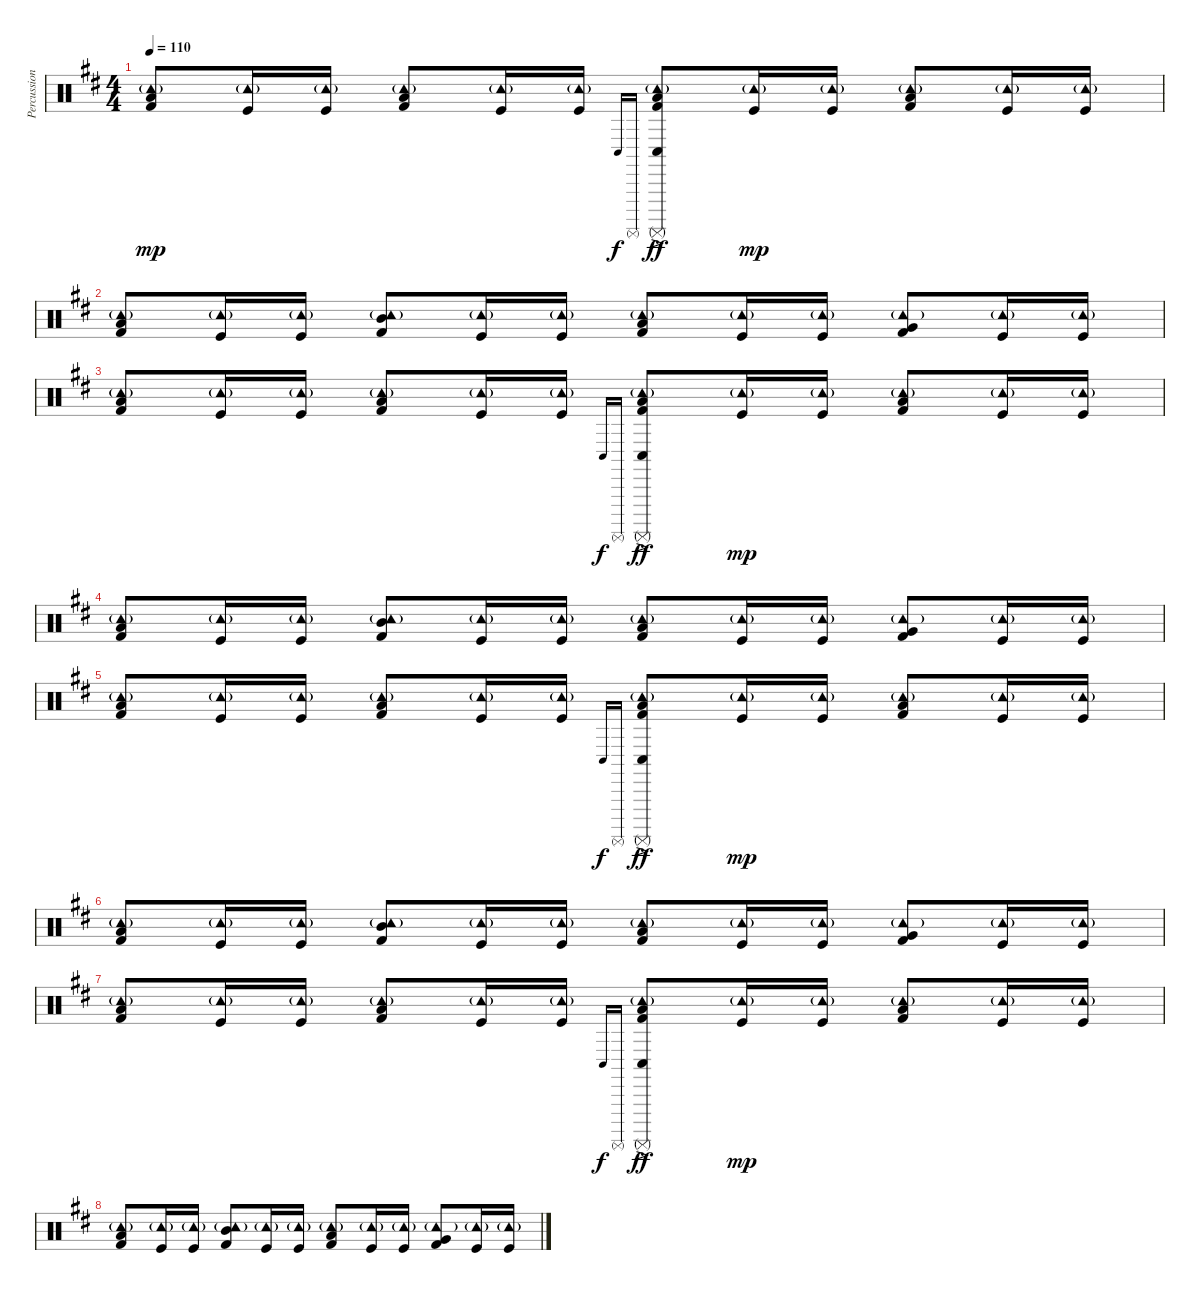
\track ("Percussion" "Percussion") {instrument percussion}
\staff {score}
\articulation defaults
\ts (4 4)
\tempo 110
\clef neutral
\ks d
("Tambourine (hit)"{g} "Low Floor Tom (hit)" "Kick (hit) 2").8{dy mp} ("Tambourine (hit)"{g} "Kick (hit)").16 ("Tambourine (hit)"{g} "Kick (hit)").16 ("Tambourine (hit)"{g} "Low Tom (hit)" "Kick (hit) 2").8 ("Tambourine (hit)"{g} "Kick (hit)").16 ("Tambourine (hit)"{g} "Kick (hit)").16 "Conga low (hit)".16{gr onbeat dy f} "Surdo (mute)".16{gr onbeat} ("Tambourine (hit)"{g} "Conga low (hit)"{ac} "Surdo (mute)"{ac} "Low Floor Tom (hit)"{ac} "Kick (hit) 2").8{dy ff} ("Tambourine (hit)"{g} "Kick (hit)").16{dy mp} ("Tambourine (hit)"{g} "Kick (hit)").16 ("Tambourine (hit)"{g} "Low Floor Tom (hit)" "Kick (hit) 2").8 ("Tambourine (hit)"{g} "Kick (hit)").16 ("Tambourine (hit)"{g} "Kick (hit)").16 |
("Tambourine (hit)"{g} "Low Floor Tom (hit)" "Kick (hit) 2").8 ("Tambourine (hit)"{g} "Kick (hit)").16 ("Tambourine (hit)"{g} "Kick (hit)").16 ("Tambourine (hit)"{g} "Mid Tom (hit)" "Kick (hit) 2").8 ("Tambourine (hit)"{g} "Kick (hit)").16 ("Tambourine (hit)"{g} "Kick (hit)").16 ("Tambourine (hit)"{g} "Low Tom (hit)" "Kick (hit) 2").8 ("Tambourine (hit)"{g} "Kick (hit)").16 ("Tambourine (hit)"{g} "Kick (hit)").16 ("Tambourine (hit)"{g} "Very Low Tom (hit)" "Kick (hit) 2").8 ("Tambourine (hit)"{g} "Kick (hit)").16 ("Tambourine (hit)"{g} "Kick (hit)").16 |
("Tambourine (hit)"{g} "Low Floor Tom (hit)" "Kick (hit) 2").8 ("Tambourine (hit)"{g} "Kick (hit)").16 ("Tambourine (hit)"{g} "Kick (hit)").16 ("Tambourine (hit)"{g} "Low Tom (hit)" "Kick (hit) 2").8 ("Tambourine (hit)"{g} "Kick (hit)").16 ("Tambourine (hit)"{g} "Kick (hit)").16 "Conga low (hit)".16{gr onbeat dy f} "Surdo (mute)".16{gr onbeat} ("Tambourine (hit)"{g} "Conga low (hit)"{ac} "Surdo (mute)"{ac} "Low Floor Tom (hit)"{ac} "Kick (hit) 2").8{dy ff} ("Tambourine (hit)"{g} "Kick (hit)").16{dy mp} ("Tambourine (hit)"{g} "Kick (hit)").16 ("Tambourine (hit)"{g} "Low Floor Tom (hit)" "Kick (hit) 2").8 ("Tambourine (hit)"{g} "Kick (hit)").16 ("Tambourine (hit)"{g} "Kick (hit)").16 |
("Tambourine (hit)"{g} "Low Floor Tom (hit)" "Kick (hit) 2").8 ("Tambourine (hit)"{g} "Kick (hit)").16 ("Tambourine (hit)"{g} "Kick (hit)").16 ("Tambourine (hit)"{g} "Mid Tom (hit)" "Kick (hit) 2").8 ("Tambourine (hit)"{g} "Kick (hit)").16 ("Tambourine (hit)"{g} "Kick (hit)").16 ("Tambourine (hit)"{g} "Low Tom (hit)" "Kick (hit) 2").8 ("Tambourine (hit)"{g} "Kick (hit)").16 ("Tambourine (hit)"{g} "Kick (hit)").16 ("Tambourine (hit)"{g} "Very Low Tom (hit)" "Kick (hit) 2").8 ("Tambourine (hit)"{g} "Kick (hit)").16 ("Tambourine (hit)"{g} "Kick (hit)").16 |
("Tambourine (hit)"{g} "Low Floor Tom (hit)" "Kick (hit) 2").8 ("Tambourine (hit)"{g} "Kick (hit)").16 ("Tambourine (hit)"{g} "Kick (hit)").16 ("Tambourine (hit)"{g} "Low Tom (hit)" "Kick (hit) 2").8 ("Tambourine (hit)"{g} "Kick (hit)").16 ("Tambourine (hit)"{g} "Kick (hit)").16 "Conga low (hit)".16{gr onbeat dy f} "Surdo (mute)".16{gr onbeat} ("Tambourine (hit)"{g} "Conga low (hit)"{ac} "Surdo (mute)"{ac} "Low Floor Tom (hit)"{ac} "Kick (hit) 2").8{dy ff} ("Tambourine (hit)"{g} "Kick (hit)").16{dy mp} ("Tambourine (hit)"{g} "Kick (hit)").16 ("Tambourine (hit)"{g} "Low Floor Tom (hit)" "Kick (hit) 2").8 ("Tambourine (hit)"{g} "Kick (hit)").16 ("Tambourine (hit)"{g} "Kick (hit)").16 |
("Tambourine (hit)"{g} "Low Floor Tom (hit)" "Kick (hit) 2").8 ("Tambourine (hit)"{g} "Kick (hit)").16 ("Tambourine (hit)"{g} "Kick (hit)").16 ("Tambourine (hit)"{g} "Mid Tom (hit)" "Kick (hit) 2").8 ("Tambourine (hit)"{g} "Kick (hit)").16 ("Tambourine (hit)"{g} "Kick (hit)").16 ("Tambourine (hit)"{g} "Low Tom (hit)" "Kick (hit) 2").8 ("Tambourine (hit)"{g} "Kick (hit)").16 ("Tambourine (hit)"{g} "Kick (hit)").16 ("Tambourine (hit)"{g} "Very Low Tom (hit)" "Kick (hit) 2").8 ("Tambourine (hit)"{g} "Kick (hit)").16 ("Tambourine (hit)"{g} "Kick (hit)").16 |
("Tambourine (hit)"{g} "Low Floor Tom (hit)" "Kick (hit) 2").8 ("Tambourine (hit)"{g} "Kick (hit)").16 ("Tambourine (hit)"{g} "Kick (hit)").16 ("Tambourine (hit)"{g} "Low Tom (hit)" "Kick (hit) 2").8 ("Tambourine (hit)"{g} "Kick (hit)").16 ("Tambourine (hit)"{g} "Kick (hit)").16 "Conga low (hit)".16{gr onbeat dy f} "Surdo (mute)".16{gr onbeat} ("Tambourine (hit)"{g} "Conga low (hit)"{ac} "Surdo (mute)"{ac} "Low Floor Tom (hit)"{ac} "Kick (hit) 2").8{dy ff} ("Tambourine (hit)"{g} "Kick (hit)").16{dy mp} ("Tambourine (hit)"{g} "Kick (hit)").16 ("Tambourine (hit)"{g} "Low Floor Tom (hit)" "Kick (hit) 2").8 ("Tambourine (hit)"{g} "Kick (hit)").16 ("Tambourine (hit)"{g} "Kick (hit)").16 |
("Tambourine (hit)"{g} "Low Floor Tom (hit)" "Kick (hit) 2").8 ("Tambourine (hit)"{g} "Kick (hit)").16 ("Tambourine (hit)"{g} "Kick (hit)").16 ("Tambourine (hit)"{g} "Mid Tom (hit)" "Kick (hit) 2").8 ("Tambourine (hit)"{g} "Kick (hit)").16 ("Tambourine (hit)"{g} "Kick (hit)").16 ("Tambourine (hit)"{g} "Low Tom (hit)" "Kick (hit) 2").8 ("Tambourine (hit)"{g} "Kick (hit)").16 ("Tambourine (hit)"{g} "Kick (hit)").16 ("Tambourine (hit)"{g} "Very Low Tom (hit)" "Kick (hit) 2").8 ("Tambourine (hit)"{g} "Kick (hit)").16 ("Tambourine (hit)"{g} "Kick (hit)").16
